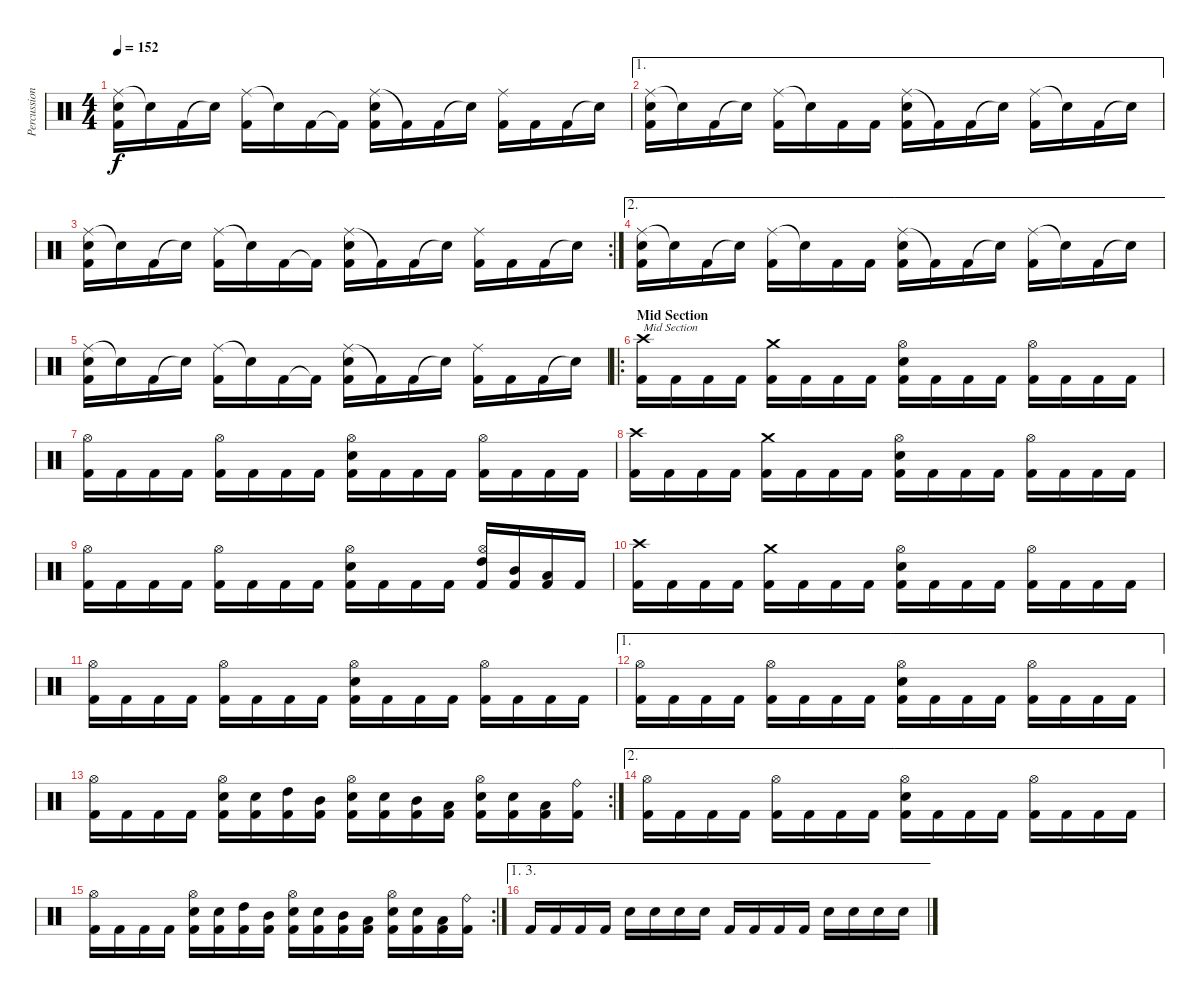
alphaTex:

\track ("Percussion" "Percussion") {instrument percussion}
\staff {score}
\articulation defaults
\ts (4 4)
\tempo 152
\clef neutral
\ks c
("Ride (middle)" "Electric Snare (hit)" "Kick (hit) 2").16{dy f} "Snare (hit)"{t}.16 "Kick (hit) 2".16 "Snare (hit)"{t}.16 ("Ride (middle)" "Kick (hit) 2").16 "Snare (hit)"{t}.16 "Kick (hit) 2".16 "Kick (hit) 2"{t}.16 ("Ride (middle)" "Electric Snare (hit)" "Kick (hit) 2").16 "Kick (hit) 2"{t}.16 "Kick (hit) 2".16 "Snare (hit)"{t}.16 ("Ride (middle)" "Kick (hit) 2").16 "Kick (hit) 2".16 "Kick (hit) 2".16 "Snare (hit)"{t}.16 |
\ae 1
("Ride (middle)" "Electric Snare (hit)" "Kick (hit) 2").16 "Snare (hit)"{t}.16 "Kick (hit) 2".16 "Snare (hit)"{t}.16 ("Ride (middle)" "Kick (hit) 2").16 "Snare (hit)"{t}.16 "Kick (hit) 2".16 "Kick (hit) 2".16 ("Ride (middle)" "Electric Snare (hit)" "Kick (hit) 2").16 "Kick (hit) 2"{t}.16 "Kick (hit) 2".16 "Snare (hit)"{t}.16 ("Ride (middle)" "Kick (hit) 2").16 "Snare (hit)"{t}.16 "Kick (hit) 2".16 "Snare (hit)"{t}.16 |
\rc 2
("Ride (middle)" "Electric Snare (hit)" "Kick (hit) 2").16 "Snare (hit)"{t}.16 "Kick (hit) 2".16 "Snare (hit)"{t}.16 ("Ride (middle)" "Kick (hit) 2").16 "Snare (hit)"{t}.16 "Kick (hit) 2".16 "Kick (hit) 2"{t}.16 ("Ride (middle)" "Electric Snare (hit)" "Kick (hit) 2").16 "Kick (hit) 2"{t}.16 "Kick (hit) 2".16 "Snare (hit)"{t}.16 ("Ride (middle)" "Kick (hit) 2").16 "Kick (hit) 2".16 "Kick (hit) 2".16 "Snare (hit)"{t}.16 |
\ae 2
("Ride (middle)" "Electric Snare (hit)" "Kick (hit) 2").16 "Snare (hit)"{t}.16 "Kick (hit) 2".16 "Snare (hit)"{t}.16 ("Ride (middle)" "Kick (hit) 2").16 "Snare (hit)"{t}.16 "Kick (hit) 2".16 "Kick (hit) 2".16 ("Ride (middle)" "Electric Snare (hit)" "Kick (hit) 2").16 "Kick (hit) 2"{t}.16 "Kick (hit) 2".16 "Snare (hit)"{t}.16 ("Ride (middle)" "Kick (hit) 2").16 "Snare (hit)"{t}.16 "Kick (hit) 2".16 "Snare (hit)"{t}.16 |
("Ride (middle)" "Electric Snare (hit)" "Kick (hit) 2").16 "Snare (hit)"{t}.16 "Kick (hit) 2".16 "Snare (hit)"{t}.16 ("Ride (middle)" "Kick (hit) 2").16 "Snare (hit)"{t}.16 "Kick (hit) 2".16 "Kick (hit) 2"{t}.16 ("Ride (middle)" "Electric Snare (hit)" "Kick (hit) 2").16 "Kick (hit) 2"{t}.16 "Kick (hit) 2".16 "Snare (hit)"{t}.16 ("Ride (middle)" "Kick (hit) 2").16 "Kick (hit) 2".16 "Kick (hit) 2".16 "Snare (hit)"{t}.16 |
\ro
\section ("" "Mid Section")
("Crash high (hit)" "Kick (hit) 2").16{txt "Mid Section"} "Kick (hit) 2".16 "Kick (hit) 2".16 "Kick (hit) 2".16 ("Crash medium (hit)" "Kick (hit) 2").16 "Kick (hit) 2".16 "Kick (hit) 2".16 "Kick (hit) 2".16 ("Hi-Hat (open)" "Electric Snare (hit)" "Kick (hit) 2").16 "Kick (hit) 2".16 "Kick (hit) 2".16 "Kick (hit) 2".16 ("Hi-Hat (open)" "Kick (hit) 2").16 "Kick (hit) 2".16 "Kick (hit) 2".16 "Kick (hit) 2".16 |
("Hi-Hat (open)" "Kick (hit) 2").16 "Kick (hit) 2".16 "Kick (hit) 2".16 "Kick (hit) 2".16 ("Hi-Hat (open)" "Kick (hit) 2").16 "Kick (hit) 2".16 "Kick (hit) 2".16 "Kick (hit) 2".16 ("Hi-Hat (open)" "Electric Snare (hit)" "Kick (hit) 2").16 "Kick (hit) 2".16 "Kick (hit) 2".16 "Kick (hit) 2".16 ("Hi-Hat (open)" "Kick (hit) 2").16 "Kick (hit) 2".16 "Kick (hit) 2".16 "Kick (hit) 2".16 |
("Crash high (hit)" "Kick (hit) 2").16 "Kick (hit) 2".16 "Kick (hit) 2".16 "Kick (hit) 2".16 ("Crash medium (hit)" "Kick (hit) 2").16 "Kick (hit) 2".16 "Kick (hit) 2".16 "Kick (hit) 2".16 ("Hi-Hat (open)" "Electric Snare (hit)" "Kick (hit) 2").16 "Kick (hit) 2".16 "Kick (hit) 2".16 "Kick (hit) 2".16 ("Hi-Hat (open)" "Kick (hit) 2").16 "Kick (hit) 2".16 "Kick (hit) 2".16 "Kick (hit) 2".16 |
("Hi-Hat (open)" "Kick (hit) 2").16 "Kick (hit) 2".16 "Kick (hit) 2".16 "Kick (hit) 2".16 ("Hi-Hat (open)" "Kick (hit) 2").16 "Kick (hit) 2".16 "Kick (hit) 2".16 "Kick (hit) 2".16 ("Hi-Hat (open)" "Electric Snare (hit)" "Kick (hit) 2").16 "Kick (hit) 2".16 "Kick (hit) 2".16 "Kick (hit) 2".16 ("Hi-Hat (open)" "High Tom (hit)" "Kick (hit) 2").16 ("Mid Tom (hit)" "Kick (hit) 2").16 ("Low Tom (hit)" "Kick (hit) 2").16 "Kick (hit) 2".16 |
("Crash high (hit)" "Kick (hit) 2").16 "Kick (hit) 2".16 "Kick (hit) 2".16 "Kick (hit) 2".16 ("Crash medium (hit)" "Kick (hit) 2").16 "Kick (hit) 2".16 "Kick (hit) 2".16 "Kick (hit) 2".16 ("Hi-Hat (open)" "Electric Snare (hit)" "Kick (hit) 2").16 "Kick (hit) 2".16 "Kick (hit) 2".16 "Kick (hit) 2".16 ("Hi-Hat (open)" "Kick (hit) 2").16 "Kick (hit) 2".16 "Kick (hit) 2".16 "Kick (hit) 2".16 |
("Hi-Hat (open)" "Kick (hit) 2").16 "Kick (hit) 2".16 "Kick (hit) 2".16 "Kick (hit) 2".16 ("Hi-Hat (open)" "Kick (hit) 2").16 "Kick (hit) 2".16 "Kick (hit) 2".16 "Kick (hit) 2".16 ("Hi-Hat (open)" "Electric Snare (hit)" "Kick (hit) 2").16 "Kick (hit) 2".16 "Kick (hit) 2".16 "Kick (hit) 2".16 ("Hi-Hat (open)" "Kick (hit) 2").16 "Kick (hit) 2".16 "Kick (hit) 2".16 "Kick (hit) 2".16 |
\ae 1
("Hi-Hat (open)" "Kick (hit) 2").16 "Kick (hit) 2".16 "Kick (hit) 2".16 "Kick (hit) 2".16 ("Hi-Hat (open)" "Kick (hit) 2").16 "Kick (hit) 2".16 "Kick (hit) 2".16 "Kick (hit) 2".16 ("Hi-Hat (open)" "Electric Snare (hit)" "Kick (hit) 2").16 "Kick (hit) 2".16 "Kick (hit) 2".16 "Kick (hit) 2".16 ("Hi-Hat (open)" "Kick (hit) 2").16 "Kick (hit) 2".16 "Kick (hit) 2".16 "Kick (hit) 2".16 |
\rc 2
("Hi-Hat (open)" "Kick (hit) 2").16 "Kick (hit) 2".16 "Kick (hit) 2".16 "Kick (hit) 2".16 ("Hi-Hat (open)" "Electric Snare (hit)" "Kick (hit) 2").16 ("Electric Snare (hit)" "Kick (hit) 2").16 ("High Tom (hit)" "Kick (hit) 2").16 ("Mid Tom (hit)" "Kick (hit) 2").16 ("Hi-Hat (open)" "Electric Snare (hit)" "Kick (hit) 2").16 ("Electric Snare (hit)" "Kick (hit) 2").16 ("Mid Tom (hit)" "Kick (hit) 2").16 ("Low Tom (hit)" "Kick (hit) 2").16 ("Hi-Hat (open)" "Electric Snare (hit)" "Kick (hit) 2").16 ("Electric Snare (hit)" "Kick (hit) 2").16 ("Low Tom (hit)" "Kick (hit) 2").16 ("Ride (bell)" "Kick (hit) 2").16 |
\ae 2
("Hi-Hat (open)" "Kick (hit) 2").16 "Kick (hit) 2".16 "Kick (hit) 2".16 "Kick (hit) 2".16 ("Hi-Hat (open)" "Kick (hit) 2").16 "Kick (hit) 2".16 "Kick (hit) 2".16 "Kick (hit) 2".16 ("Hi-Hat (open)" "Electric Snare (hit)" "Kick (hit) 2").16 "Kick (hit) 2".16 "Kick (hit) 2".16 "Kick (hit) 2".16 ("Hi-Hat (open)" "Kick (hit) 2").16 "Kick (hit) 2".16 "Kick (hit) 2".16 "Kick (hit) 2".16 |
\rc 2
("Hi-Hat (open)" "Kick (hit) 2").16 "Kick (hit) 2".16 "Kick (hit) 2".16 "Kick (hit) 2".16 ("Hi-Hat (open)" "Electric Snare (hit)" "Kick (hit) 2").16 ("Electric Snare (hit)" "Kick (hit) 2").16 ("High Tom (hit)" "Kick (hit) 2").16 ("Mid Tom (hit)" "Kick (hit) 2").16 ("Hi-Hat (open)" "Electric Snare (hit)" "Kick (hit) 2").16 ("Electric Snare (hit)" "Kick (hit) 2").16 ("Mid Tom (hit)" "Kick (hit) 2").16 ("Low Tom (hit)" "Kick (hit) 2").16 ("Hi-Hat (open)" "Electric Snare (hit)" "Kick (hit) 2").16 ("Electric Snare (hit)" "Kick (hit) 2").16 ("Low Tom (hit)" "Kick (hit) 2").16 ("Ride (bell)" "Kick (hit) 2").16 |
\ae (1 3)
"Kick (hit) 2".16 "Kick (hit) 2".16 "Kick (hit) 2".16 "Kick (hit) 2".16 "Electric Snare (hit)".16 "Electric Snare (hit)".16 "Electric Snare (hit)".16 "Electric Snare (hit)".16 "Kick (hit) 2".16 "Kick (hit) 2".16 "Kick (hit) 2".16 "Kick (hit) 2".16 "Electric Snare (hit)".16 "Electric Snare (hit)".16 "Electric Snare (hit)".16 "Electric Snare (hit)".16
